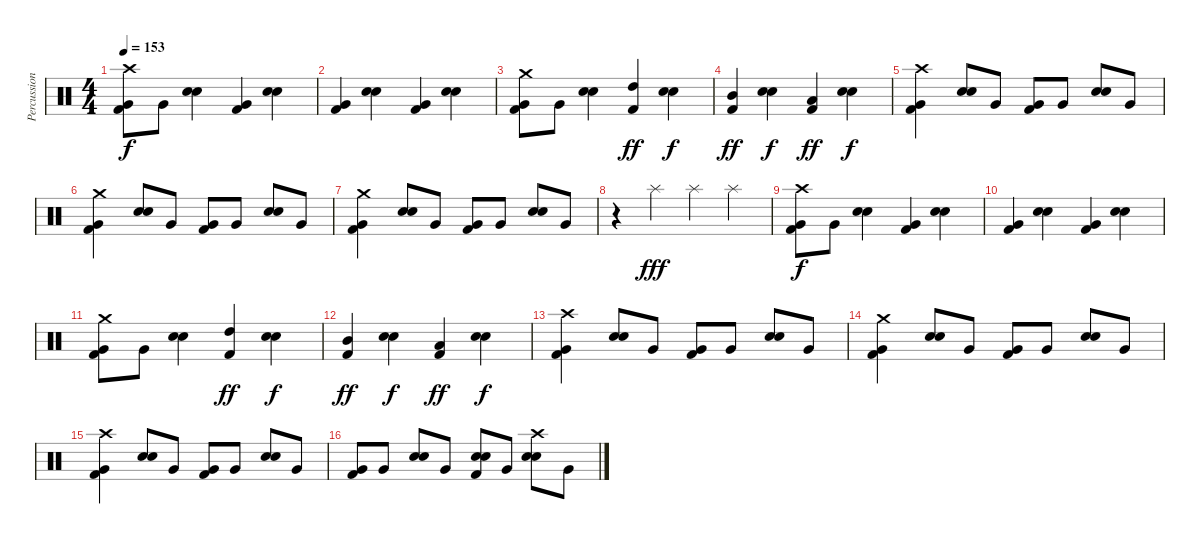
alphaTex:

\track ("Percussion" "Percussion") {instrument percussion}
\staff {score}
\articulation defaults
\ts (4 4)
\tempo 153
\clef neutral
\ks c
("Crash high (hit)" "Very Low Tom (hit)" "Kick (hit) 2").8{dy f} "Very Low Tom (hit)".8 ("Electric Snare (hit)" "Snare (hit) 2").4 ("Very Low Tom (hit)" "Kick (hit) 2").4 ("Electric Snare (hit)" "Snare (hit) 2").4 |
("Very Low Tom (hit)" "Kick (hit) 2").4 ("Electric Snare (hit)" "Snare (hit) 2").4 ("Very Low Tom (hit)" "Kick (hit) 2").4 ("Electric Snare (hit)" "Snare (hit) 2").4 |
("Crash medium (hit)" "Very Low Tom (hit)" "Kick (hit) 2").8 "Very Low Tom (hit)".8 ("Electric Snare (hit)" "Snare (hit) 2").4 ("High Tom (hit)" "Kick (hit) 2").4{dy ff} ("Electric Snare (hit)" "Snare (hit) 2").4{dy f} |
("Mid Tom (hit)" "Kick (hit) 2").4{dy ff} ("Electric Snare (hit)" "Snare (hit) 2").4{dy f} ("Low Tom (hit)" "Kick (hit) 2").4{dy ff} ("Electric Snare (hit)" "Snare (hit) 2").4{dy f} |
("Crash high (hit)" "Very Low Tom (hit)" "Kick (hit) 2").4 ("Electric Snare (hit)" "Snare (hit) 2").8 "Very Low Tom (hit)".8 ("Very Low Tom (hit)" "Kick (hit) 2").8 "Very Low Tom (hit)".8 ("Electric Snare (hit)" "Snare (hit) 2").8 "Very Low Tom (hit)".8 |
("Crash medium (hit)" "Very Low Tom (hit)" "Kick (hit) 2").4 ("Electric Snare (hit)" "Snare (hit) 2").8 "Very Low Tom (hit)".8 ("Very Low Tom (hit)" "Kick (hit) 2").8 "Very Low Tom (hit)".8 ("Electric Snare (hit)" "Snare (hit) 2").8 "Very Low Tom (hit)".8 |
("Crash medium (hit)" "Very Low Tom (hit)" "Kick (hit) 2").4 ("Electric Snare (hit)" "Snare (hit) 2").8 "Very Low Tom (hit)".8 ("Very Low Tom (hit)" "Kick (hit) 2").8 "Very Low Tom (hit)".8 ("Electric Snare (hit)" "Snare (hit) 2").8 "Very Low Tom (hit)".8 |
r.4 "Splash (hit)".4{dy fff} "Splash (hit)".4 "Splash (hit)".4 |
("Crash high (hit)" "Very Low Tom (hit)" "Kick (hit) 2").8{dy f} "Very Low Tom (hit)".8 ("Electric Snare (hit)" "Snare (hit) 2").4 ("Very Low Tom (hit)" "Kick (hit) 2").4 ("Electric Snare (hit)" "Snare (hit) 2").4 |
("Very Low Tom (hit)" "Kick (hit) 2").4 ("Electric Snare (hit)" "Snare (hit) 2").4 ("Very Low Tom (hit)" "Kick (hit) 2").4 ("Electric Snare (hit)" "Snare (hit) 2").4 |
("Crash medium (hit)" "Very Low Tom (hit)" "Kick (hit) 2").8 "Very Low Tom (hit)".8 ("Electric Snare (hit)" "Snare (hit) 2").4 ("High Tom (hit)" "Kick (hit) 2").4{dy ff} ("Electric Snare (hit)" "Snare (hit) 2").4{dy f} |
("Mid Tom (hit)" "Kick (hit) 2").4{dy ff} ("Electric Snare (hit)" "Snare (hit) 2").4{dy f} ("Low Tom (hit)" "Kick (hit) 2").4{dy ff} ("Electric Snare (hit)" "Snare (hit) 2").4{dy f} |
("Crash high (hit)" "Very Low Tom (hit)" "Kick (hit) 2").4 ("Electric Snare (hit)" "Snare (hit) 2").8 "Very Low Tom (hit)".8 ("Very Low Tom (hit)" "Kick (hit) 2").8 "Very Low Tom (hit)".8 ("Electric Snare (hit)" "Snare (hit) 2").8 "Very Low Tom (hit)".8 |
("Crash medium (hit)" "Very Low Tom (hit)" "Kick (hit) 2").4 ("Electric Snare (hit)" "Snare (hit) 2").8 "Very Low Tom (hit)".8 ("Very Low Tom (hit)" "Kick (hit) 2").8 "Very Low Tom (hit)".8 ("Electric Snare (hit)" "Snare (hit) 2").8 "Very Low Tom (hit)".8 |
("Crash high (hit)" "Very Low Tom (hit)" "Kick (hit) 2").4 ("Electric Snare (hit)" "Snare (hit) 2").8 "Very Low Tom (hit)".8 ("Very Low Tom (hit)" "Kick (hit) 2").8 "Very Low Tom (hit)".8 ("Electric Snare (hit)" "Snare (hit) 2").8 "Very Low Tom (hit)".8 |
("Very Low Tom (hit)" "Kick (hit) 2").8 "Very Low Tom (hit)".8 ("Electric Snare (hit)" "Snare (hit) 2").8 "Very Low Tom (hit)".8 ("Electric Snare (hit)" "Snare (hit) 2" "Kick (hit) 2").8 "Very Low Tom (hit)".8 ("Crash high (hit)" "Electric Snare (hit)" "Snare (hit) 2").8 "Very Low Tom (hit)".8
